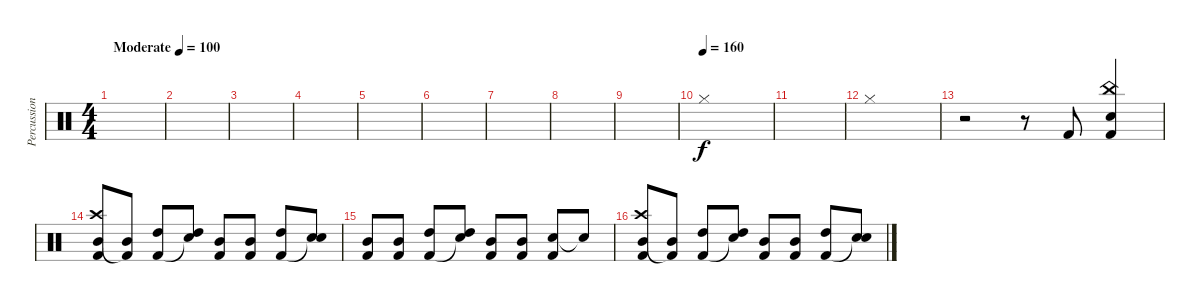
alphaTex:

\track ("Percussion" "Percussion") {instrument percussion}
\staff {score}
\articulation defaults
\ts (4 4)
\tempo (100 "Moderate")
\clef neutral
\ks c
|
|
|
|
|
|
|
|
|
\tempo (160)
"Hi-Hat (closed)".1 |
|
"Hi-Hat (closed)".1 |
r.2 r.8 "Kick (hit) 2".8 ("China (hit)" "Snare (hit) 2" "Kick (hit) 2").4 |
("Crash high (hit)" "Mid Tom (hit)" "Kick (hit) 2").8 ("Mid Tom (hit)" "Kick (hit) 2"{t}).8 ("High Tom (hit)" "Kick (hit) 2").8 ("High Tom (hit)" "Snare (hit)"{t}).8 ("Mid Tom (hit)" "Kick (hit) 2").8 ("Mid Tom (hit)" "Kick (hit) 2").8 ("High Tom (hit)" "Kick (hit) 2").8 ("Snare (hit) 2" "Snare (hit)"{t}).8 |
("Mid Tom (hit)" "Kick (hit) 2").8 ("Mid Tom (hit)" "Kick (hit) 2").8 ("High Tom (hit)" "Kick (hit) 2").8 ("High Tom (hit)" "Snare (hit)"{t}).8 ("Mid Tom (hit)" "Kick (hit) 2").8 ("Mid Tom (hit)" "Kick (hit) 2").8 ("Snare (hit) 2" "Kick (hit) 2").8 "Snare (hit)"{t}.8 |
("Crash high (hit)" "Mid Tom (hit)" "Kick (hit) 2").8 ("Mid Tom (hit)" "Kick (hit) 2"{t}).8 ("High Tom (hit)" "Kick (hit) 2").8 ("High Tom (hit)" "Snare (hit)"{t}).8 ("Mid Tom (hit)" "Kick (hit) 2").8 ("Mid Tom (hit)" "Kick (hit) 2").8 ("High Tom (hit)" "Kick (hit) 2").8 ("Snare (hit) 2" "Snare (hit)"{t}).8
